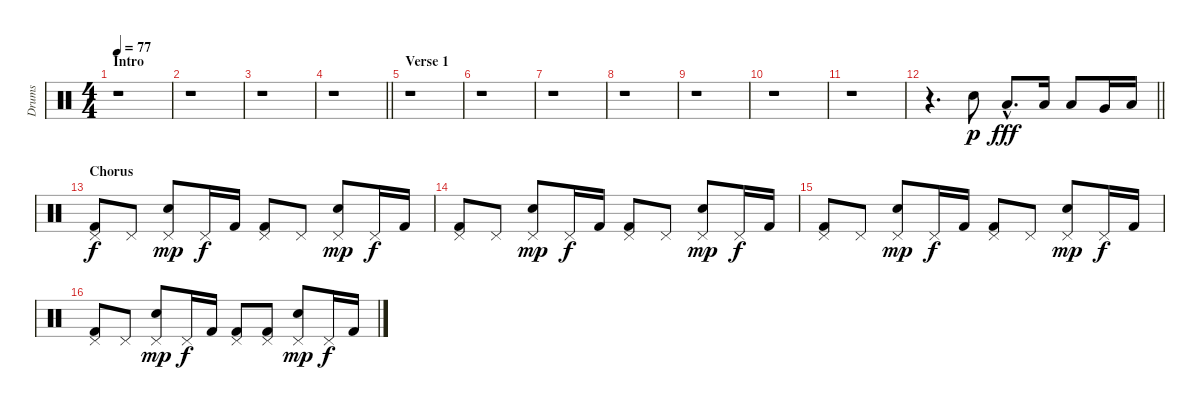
\track ("Drums" "Drums") {instrument percussion}
\staff {score}
\articulation defaults
\ts (4 4)
\section ("" "Intro")
\tempo 77
\clef neutral
\ks c
r.1{dy p} |
r.1 |
r.1 |
\barLineRight lightlight
r.1 |
\section ("" "Verse 1")
r.1 |
r.1 |
r.1 |
r.1 |
r.1 |
r.1 |
r.1 |
\barLineRight lightlight
r.4{d} "Snare (hit) 2".8 "Low Tom (hit)"{hac}.8{d dy fff} "Low Tom (hit)".16 "Low Tom (hit)".8 "Very Low Tom (hit)".16 "Low Floor Tom (hit)".16 |
\section ("" "Chorus")
("Pedal Hi-Hat (hit)" "Kick (hit) 2").8{dy f} "Pedal Hi-Hat (hit)".8 ("Pedal Hi-Hat (hit)" "Snare (hit) 2").8{dy mp} "Pedal Hi-Hat (hit)".16{dy f} "Kick (hit) 2".16 ("Pedal Hi-Hat (hit)" "Kick (hit) 2").8 "Pedal Hi-Hat (hit)".8 ("Pedal Hi-Hat (hit)" "Snare (hit) 2").8{dy mp} "Pedal Hi-Hat (hit)".16{dy f} "Kick (hit) 2".16 |
("Pedal Hi-Hat (hit)" "Kick (hit) 2").8 "Pedal Hi-Hat (hit)".8 ("Pedal Hi-Hat (hit)" "Snare (hit) 2").8{dy mp} "Pedal Hi-Hat (hit)".16{dy f} "Kick (hit) 2".16 ("Pedal Hi-Hat (hit)" "Kick (hit) 2").8 "Pedal Hi-Hat (hit)".8 ("Pedal Hi-Hat (hit)" "Snare (hit) 2").8{dy mp} "Pedal Hi-Hat (hit)".16{dy f} "Kick (hit) 2".16 |
("Pedal Hi-Hat (hit)" "Kick (hit) 2").8 "Pedal Hi-Hat (hit)".8 ("Pedal Hi-Hat (hit)" "Snare (hit) 2").8{dy mp} "Pedal Hi-Hat (hit)".16{dy f} "Kick (hit) 2".16 ("Pedal Hi-Hat (hit)" "Kick (hit) 2").8 "Pedal Hi-Hat (hit)".8 ("Pedal Hi-Hat (hit)" "Snare (hit) 2").8{dy mp} "Pedal Hi-Hat (hit)".16{dy f} "Kick (hit) 2".16 |
("Pedal Hi-Hat (hit)" "Kick (hit) 2").8 "Pedal Hi-Hat (hit)".8 ("Pedal Hi-Hat (hit)" "Snare (hit) 2").8{dy mp} "Pedal Hi-Hat (hit)".16{dy f} "Kick (hit) 2".16 ("Pedal Hi-Hat (hit)" "Kick (hit) 2").8 ("Pedal Hi-Hat (hit)" "Kick (hit) 2").8 ("Pedal Hi-Hat (hit)" "Snare (hit) 2").8{dy mp} "Pedal Hi-Hat (hit)".16{dy f} "Kick (hit) 2".16
